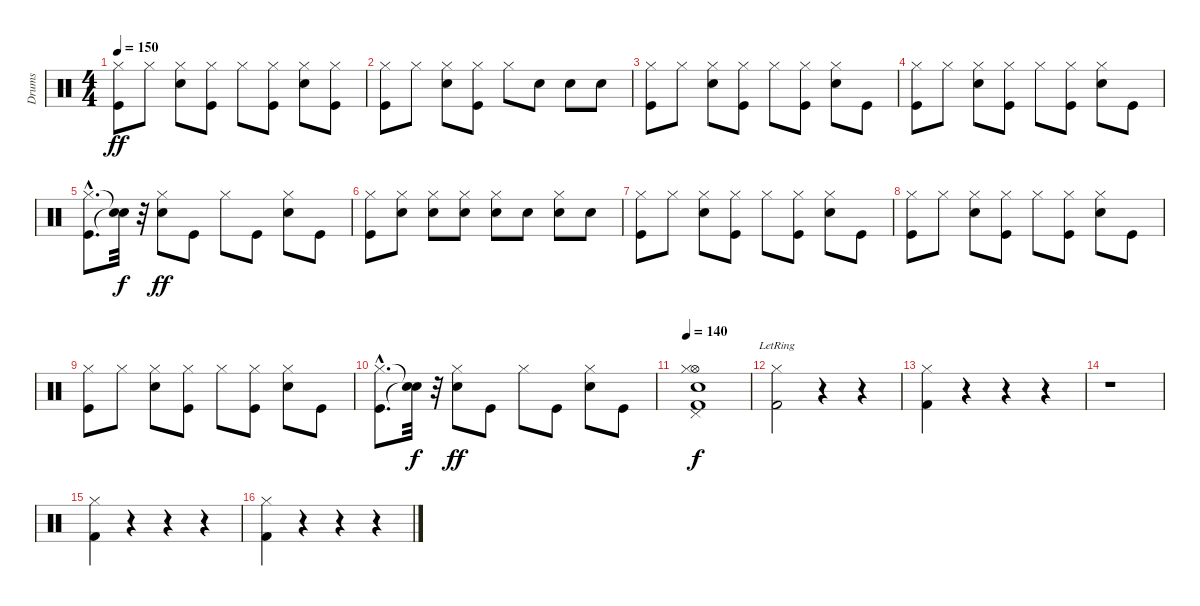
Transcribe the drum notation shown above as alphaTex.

\track ("Drums" "Drums") {instrument percussion}
\staff {score}
\articulation defaults
\ts (4 4)
\tempo 150
\clef neutral
\ks c
("Kick (hit)" "Hi-Hat (closed)").8{dy ff} "Hi-Hat (closed)".8 ("Snare (hit) 2" "Hi-Hat (closed)").8 ("Kick (hit)" "Hi-Hat (closed)").8 "Hi-Hat (closed)".8 ("Kick (hit)" "Hi-Hat (closed)").8 ("Snare (hit) 2" "Hi-Hat (closed)").8 ("Kick (hit)" "Hi-Hat (closed)").8 |
("Kick (hit)" "Hi-Hat (closed)").8 "Hi-Hat (closed)".8 ("Snare (hit) 2" "Hi-Hat (closed)").8 ("Kick (hit)" "Hi-Hat (closed)").8 "Hi-Hat (closed)".8 "Snare (hit) 2".8 "Snare (hit) 2".8 "Snare (hit) 2".8 |
("Kick (hit)" "Hi-Hat (closed)").8 "Hi-Hat (closed)".8 ("Snare (hit) 2" "Hi-Hat (closed)").8 ("Kick (hit)" "Hi-Hat (closed)").8 "Hi-Hat (closed)".8 ("Kick (hit)" "Hi-Hat (closed)").8 ("Snare (hit) 2" "Hi-Hat (closed)").8 "Kick (hit)".8 |
("Kick (hit)" "Hi-Hat (closed)").8 "Hi-Hat (closed)".8 ("Snare (hit) 2" "Hi-Hat (closed)").8 ("Kick (hit)" "Hi-Hat (closed)").8 "Hi-Hat (closed)".8 ("Kick (hit)" "Hi-Hat (closed)").8 ("Snare (hit) 2" "Hi-Hat (closed)").8 "Kick (hit)".8 |
("Kick (hit)"{hac} "Hi-Hat (closed)"{hac}).8{d} ("Snare (hit)"{t} "Snare (hit)"{t}).32{dy f} r.32 ("Snare (hit) 2" "Hi-Hat (closed)").8{dy ff} "Kick (hit)".8 "Hi-Hat (closed)".8 "Kick (hit)".8 ("Snare (hit) 2" "Hi-Hat (closed)").8 "Kick (hit)".8 |
("Kick (hit)" "Hi-Hat (closed)").8 ("Snare (hit) 2" "Hi-Hat (closed)").8 ("Snare (hit) 2" "Hi-Hat (closed)").8 ("Snare (hit) 2" "Hi-Hat (closed)").8 ("Snare (hit) 2" "Hi-Hat (closed)").8 "Snare (hit) 2".8 ("Snare (hit) 2" "Hi-Hat (closed)").8 "Snare (hit) 2".8 |
("Kick (hit)" "Hi-Hat (closed)").8 "Hi-Hat (closed)".8 ("Snare (hit) 2" "Hi-Hat (closed)").8 ("Kick (hit)" "Hi-Hat (closed)").8 "Hi-Hat (closed)".8 ("Kick (hit)" "Hi-Hat (closed)").8 ("Snare (hit) 2" "Hi-Hat (closed)").8 "Kick (hit)".8 |
("Kick (hit)" "Hi-Hat (closed)").8 "Hi-Hat (closed)".8 ("Snare (hit) 2" "Hi-Hat (closed)").8 ("Kick (hit)" "Hi-Hat (closed)").8 "Hi-Hat (closed)".8 ("Kick (hit)" "Hi-Hat (closed)").8 ("Snare (hit) 2" "Hi-Hat (closed)").8 "Kick (hit)".8 |
("Kick (hit)" "Hi-Hat (closed)").8 "Hi-Hat (closed)".8 ("Snare (hit) 2" "Hi-Hat (closed)").8 ("Kick (hit)" "Hi-Hat (closed)").8 "Hi-Hat (closed)".8 ("Kick (hit)" "Hi-Hat (closed)").8 ("Snare (hit) 2" "Hi-Hat (closed)").8 "Kick (hit)".8 |
("Kick (hit)"{hac} "Hi-Hat (closed)"{hac}).8{d} ("Snare (hit)"{t} "Snare (hit)"{t}).32{dy f} r.32 ("Snare (hit) 2" "Hi-Hat (closed)").8{dy ff} "Kick (hit)".8 "Hi-Hat (closed)".8 "Kick (hit)".8 ("Snare (hit) 2" "Hi-Hat (closed)").8 "Kick (hit)".8 |
\tempo 140
("Snare (hit) 2" "Pedal Hi-Hat (hit)" "Hi-Hat (open)" "Kick (hit) 2" "Hi-Hat (closed)").1{dy f} |
("Kick (hit) 2"{lr} "Hi-Hat (closed)").2 r.4 r.4 |
("Kick (hit) 2" "Hi-Hat (closed)").4 r.4 r.4 r.4 |
r.1 |
("Kick (hit) 2" "Hi-Hat (closed)").4 r.4 r.4 r.4 |
("Kick (hit) 2" "Hi-Hat (closed)").4 r.4 r.4 r.4
